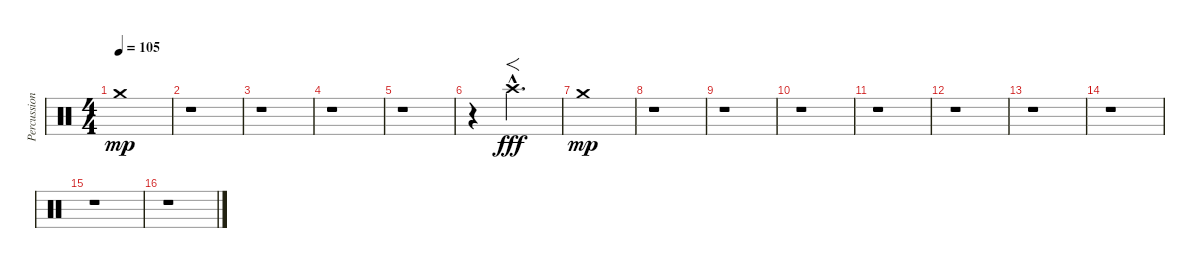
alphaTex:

\track ("Percussion" "Percussion") {instrument percussion}
\staff {score}
\articulation defaults
\ts (4 4)
\tempo 105
\clef neutral
\ks c "Crash medium (hit)".1{dy mp}
|
r.1 |
r.1 |
r.1 |
r.1 |
r.4 "Crash high (hit)"{hac}.2{f d dy fff} |
"Crash medium (hit)".1{dy mp} |
r.1 |
r.1 |
r.1 |
r.1 |
r.1 |
r.1 |
r.1 |
r.1 |
r.1
